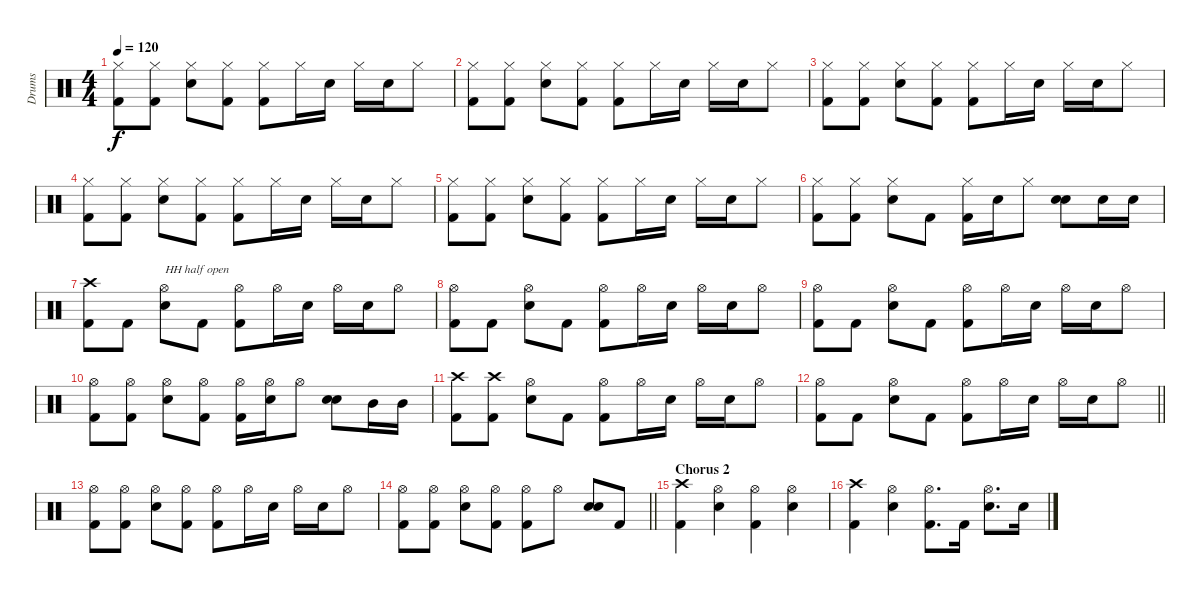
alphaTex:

\track ("Drums" "Drums") {instrument percussion}
\staff {score}
\articulation defaults
\ts (4 4)
\tempo 120
\clef neutral
\ks c
("Hi-Hat (closed)" "Kick (hit) 2").8{dy f} ("Hi-Hat (closed)" "Kick (hit) 2").8 ("Hi-Hat (closed)" "Electric Snare (hit)").8 ("Hi-Hat (closed)" "Kick (hit) 2").8 ("Hi-Hat (closed)" "Kick (hit) 2").8 "Hi-Hat (closed)".16 "Electric Snare (hit)".16 "Hi-Hat (closed)".16 "Electric Snare (hit)".16 "Hi-Hat (closed)".8 |
("Hi-Hat (closed)" "Kick (hit) 2").8 ("Hi-Hat (closed)" "Kick (hit) 2").8 ("Hi-Hat (closed)" "Electric Snare (hit)").8 ("Hi-Hat (closed)" "Kick (hit) 2").8 ("Hi-Hat (closed)" "Kick (hit) 2").8 "Hi-Hat (closed)".16 "Electric Snare (hit)".16 "Hi-Hat (closed)".16 "Electric Snare (hit)".16 "Hi-Hat (closed)".8 |
("Hi-Hat (closed)" "Kick (hit) 2").8 ("Hi-Hat (closed)" "Kick (hit) 2").8 ("Hi-Hat (closed)" "Electric Snare (hit)").8 ("Hi-Hat (closed)" "Kick (hit) 2").8 ("Hi-Hat (closed)" "Kick (hit) 2").8 "Hi-Hat (closed)".16 "Electric Snare (hit)".16 "Hi-Hat (closed)".16 "Electric Snare (hit)".16 "Hi-Hat (closed)".8 |
("Hi-Hat (closed)" "Kick (hit) 2").8 ("Hi-Hat (closed)" "Kick (hit) 2").8 ("Hi-Hat (closed)" "Electric Snare (hit)").8 ("Hi-Hat (closed)" "Kick (hit) 2").8 ("Hi-Hat (closed)" "Kick (hit) 2").8 "Hi-Hat (closed)".16 "Electric Snare (hit)".16 "Hi-Hat (closed)".16 "Electric Snare (hit)".16 "Hi-Hat (closed)".8 |
("Hi-Hat (closed)" "Kick (hit) 2").8 ("Hi-Hat (closed)" "Kick (hit) 2").8 ("Hi-Hat (closed)" "Electric Snare (hit)").8 ("Hi-Hat (closed)" "Kick (hit) 2").8 ("Hi-Hat (closed)" "Kick (hit) 2").8 "Hi-Hat (closed)".16 "Electric Snare (hit)".16 "Hi-Hat (closed)".16 "Electric Snare (hit)".16 "Hi-Hat (closed)".8 |
("Hi-Hat (closed)" "Kick (hit) 2").8 ("Hi-Hat (closed)" "Kick (hit) 2").8 ("Hi-Hat (closed)" "Electric Snare (hit)").8 "Kick (hit) 2".8 ("Hi-Hat (closed)" "Kick (hit) 2").16 "Electric Snare (hit)".16 "Hi-Hat (closed)".8 ("Electric Snare (hit)" "Electric Snare (hit)").8 "Electric Snare (hit)".16 "Electric Snare (hit)".16 |
("Crash high (hit)" "Kick (hit) 2").8 "Kick (hit) 2".8 ("Hi-Hat (open)" "Electric Snare (hit)").8{txt "HH half open"} "Kick (hit) 2".8 ("Hi-Hat (open)" "Kick (hit) 2").8 "Hi-Hat (open)".16 "Electric Snare (hit)".16 "Hi-Hat (open)".16 "Electric Snare (hit)".16 "Hi-Hat (open)".8 |
("Hi-Hat (open)" "Kick (hit) 2").8 "Kick (hit) 2".8 ("Hi-Hat (open)" "Electric Snare (hit)").8 "Kick (hit) 2".8 ("Hi-Hat (open)" "Kick (hit) 2").8 "Hi-Hat (open)".16 "Electric Snare (hit)".16 "Hi-Hat (open)".16 "Electric Snare (hit)".16 "Hi-Hat (open)".8 |
("Hi-Hat (open)" "Kick (hit) 2").8 "Kick (hit) 2".8 ("Hi-Hat (open)" "Electric Snare (hit)").8 "Kick (hit) 2".8 ("Hi-Hat (open)" "Kick (hit) 2").8 "Hi-Hat (open)".16 "Electric Snare (hit)".16 "Hi-Hat (open)".16 "Electric Snare (hit)".16 "Hi-Hat (open)".8 |
("Hi-Hat (open)" "Kick (hit) 2").8 ("Hi-Hat (open)" "Kick (hit) 2").8 ("Hi-Hat (open)" "Electric Snare (hit)").8 ("Hi-Hat (open)" "Kick (hit) 2").8 ("Hi-Hat (open)" "Kick (hit) 2").16 ("Hi-Hat (open)" "Electric Snare (hit)").16 "Hi-Hat (open)".8 ("Electric Snare (hit)" "Electric Snare (hit)").8 "Mid Tom (hit)".16 "Mid Tom (hit)".16 |
("Crash high (hit)" "Kick (hit) 2").8 ("Crash high (hit)" "Kick (hit) 2").8 ("Hi-Hat (open)" "Electric Snare (hit)").8 "Kick (hit) 2".8 ("Hi-Hat (open)" "Kick (hit) 2").8 "Hi-Hat (open)".16 "Electric Snare (hit)".16 "Hi-Hat (open)".16 "Electric Snare (hit)".16 "Hi-Hat (open)".8 |
\barLineRight lightlight
("Hi-Hat (open)" "Kick (hit) 2").8 "Kick (hit) 2".8 ("Hi-Hat (open)" "Electric Snare (hit)").8 "Kick (hit) 2".8 ("Hi-Hat (open)" "Kick (hit) 2").8 "Hi-Hat (open)".16 "Electric Snare (hit)".16 "Hi-Hat (open)".16 "Electric Snare (hit)".16 "Hi-Hat (open)".8 |
("Hi-Hat (open)" "Kick (hit) 2").8 ("Hi-Hat (open)" "Kick (hit) 2").8 ("Hi-Hat (open)" "Electric Snare (hit)").8 ("Hi-Hat (open)" "Kick (hit) 2").8 ("Hi-Hat (open)" "Kick (hit) 2").8 "Hi-Hat (open)".16 "Electric Snare (hit)".16 "Hi-Hat (open)".16 "Electric Snare (hit)".16 "Hi-Hat (open)".8 |
\barLineRight lightlight
("Hi-Hat (open)" "Kick (hit) 2").8 ("Hi-Hat (open)" "Kick (hit) 2").8 ("Hi-Hat (open)" "Electric Snare (hit)").8 ("Hi-Hat (open)" "Kick (hit) 2").8 ("Hi-Hat (open)" "Kick (hit) 2").8 "Hi-Hat (open)".8 ("Electric Snare (hit)" "Electric Snare (hit)").8 "Kick (hit) 2".8 |
\section ("" "Chorus 2")
("Crash high (hit)" "Kick (hit) 2").4 ("Hi-Hat (open)" "Electric Snare (hit)").4 ("Hi-Hat (open)" "Kick (hit) 2").4 ("Hi-Hat (open)" "Electric Snare (hit)").4 |
("Crash high (hit)" "Kick (hit) 2").4 ("Hi-Hat (open)" "Electric Snare (hit)").4 ("Hi-Hat (open)" "Kick (hit) 2").8{d} "Kick (hit) 2".16 ("Hi-Hat (open)" "Electric Snare (hit)").8{d} "Electric Snare (hit)".16
